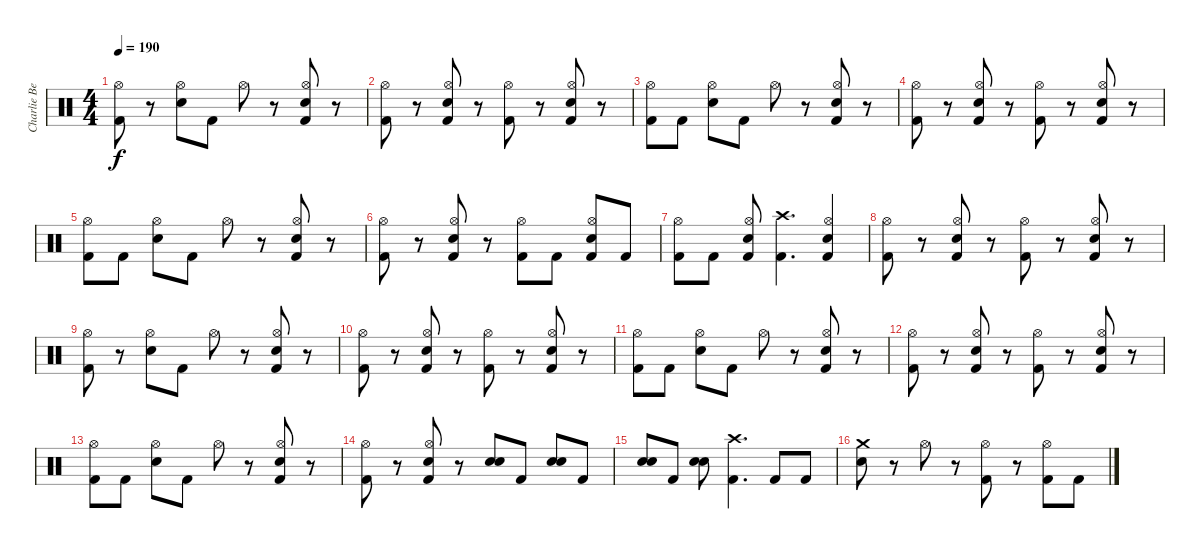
\track ("Charlie Benante" "Charlie Be") {instrument percussion}
\staff {score}
\articulation defaults
\ts (4 4)
\tempo 190
\clef neutral
\ks c
("Kick (hit) 2" "Hi-Hat (open)").8{dy f} r.8 ("Snare (hit) 2" "Hi-Hat (open)").8 "Kick (hit) 2".8 "Hi-Hat (open)".8 r.8 ("Kick (hit) 2" "Snare (hit) 2" "Hi-Hat (open)").8 r.8 |
("Kick (hit) 2" "Hi-Hat (open)").8 r.8 ("Kick (hit) 2" "Snare (hit) 2" "Hi-Hat (open)").8 r.8 ("Kick (hit) 2" "Hi-Hat (open)").8 r.8 ("Kick (hit) 2" "Snare (hit) 2" "Hi-Hat (open)").8 r.8 |
("Kick (hit) 2" "Hi-Hat (open)").8 "Kick (hit) 2".8 ("Snare (hit) 2" "Hi-Hat (open)").8 "Kick (hit) 2".8 "Hi-Hat (open)".8 r.8 ("Kick (hit) 2" "Snare (hit) 2" "Hi-Hat (open)").8 r.8 |
("Kick (hit) 2" "Hi-Hat (open)").8 r.8 ("Kick (hit) 2" "Snare (hit) 2" "Hi-Hat (open)").8 r.8 ("Kick (hit) 2" "Hi-Hat (open)").8 r.8 ("Kick (hit) 2" "Snare (hit) 2" "Hi-Hat (open)").8 r.8 |
("Kick (hit) 2" "Hi-Hat (open)").8 "Kick (hit) 2".8 ("Snare (hit) 2" "Hi-Hat (open)").8 "Kick (hit) 2".8 "Hi-Hat (open)".8 r.8 ("Kick (hit) 2" "Snare (hit) 2" "Hi-Hat (open)").8 r.8 |
("Kick (hit) 2" "Hi-Hat (open)").8 r.8 ("Kick (hit) 2" "Snare (hit) 2" "Hi-Hat (open)").8 r.8 ("Kick (hit) 2" "Hi-Hat (open)").8 "Kick (hit) 2".8 ("Kick (hit) 2" "Snare (hit) 2" "Hi-Hat (open)").8 "Kick (hit) 2".8 |
("Kick (hit) 2" "Hi-Hat (open)").8 "Kick (hit) 2".8 ("Kick (hit) 2" "Snare (hit) 2" "Hi-Hat (open)").8 ("Kick (hit) 2" "Crash high (hit)").4{d} ("Kick (hit) 2" "Snare (hit) 2" "Hi-Hat (open)").4 |
("Kick (hit) 2" "Hi-Hat (open)").8 r.8 ("Kick (hit) 2" "Snare (hit) 2" "Hi-Hat (open)").8 r.8 ("Kick (hit) 2" "Hi-Hat (open)").8 r.8 ("Kick (hit) 2" "Snare (hit) 2" "Hi-Hat (open)").8 r.8 |
("Kick (hit) 2" "Hi-Hat (open)").8 r.8 ("Snare (hit) 2" "Hi-Hat (open)").8 "Kick (hit) 2".8 "Hi-Hat (open)".8 r.8 ("Kick (hit) 2" "Snare (hit) 2" "Hi-Hat (open)").8 r.8 |
("Kick (hit) 2" "Hi-Hat (open)").8 r.8 ("Kick (hit) 2" "Snare (hit) 2" "Hi-Hat (open)").8 r.8 ("Kick (hit) 2" "Hi-Hat (open)").8 r.8 ("Kick (hit) 2" "Snare (hit) 2" "Hi-Hat (open)").8 r.8 |
("Kick (hit) 2" "Hi-Hat (open)").8 "Kick (hit) 2".8 ("Snare (hit) 2" "Hi-Hat (open)").8 "Kick (hit) 2".8 "Hi-Hat (open)".8 r.8 ("Kick (hit) 2" "Snare (hit) 2" "Hi-Hat (open)").8 r.8 |
("Kick (hit) 2" "Hi-Hat (open)").8 r.8 ("Kick (hit) 2" "Snare (hit) 2" "Hi-Hat (open)").8 r.8 ("Kick (hit) 2" "Hi-Hat (open)").8 r.8 ("Kick (hit) 2" "Snare (hit) 2" "Hi-Hat (open)").8 r.8 |
("Kick (hit) 2" "Hi-Hat (open)").8 "Kick (hit) 2".8 ("Snare (hit) 2" "Hi-Hat (open)").8 "Kick (hit) 2".8 "Hi-Hat (open)".8 r.8 ("Kick (hit) 2" "Snare (hit) 2" "Hi-Hat (open)").8 r.8 |
("Kick (hit) 2" "Hi-Hat (open)").8 r.8 ("Kick (hit) 2" "Snare (hit) 2" "Hi-Hat (open)").8 r.8 ("Snare (hit) 2" "Snare (hit) 2").8{bd 120} "Kick (hit) 2".8 ("Snare (hit) 2" "Snare (hit) 2").8{bd 120} "Kick (hit) 2".8 |
("Snare (hit) 2" "Snare (hit) 2").8{bd 120} "Kick (hit) 2".8 ("Snare (hit) 2" "Snare (hit) 2").8{bd 120} ("Kick (hit) 2" "Crash high (hit)").4{d} "Kick (hit) 2".8 "Kick (hit) 2".8 |
("Snare (hit) 2" "Crash medium (hit)").8 r.8 "Hi-Hat (open)".8 r.8 ("Kick (hit) 2" "Hi-Hat (open)").8 r.8 ("Kick (hit) 2" "Hi-Hat (open)").8 "Kick (hit) 2".8
